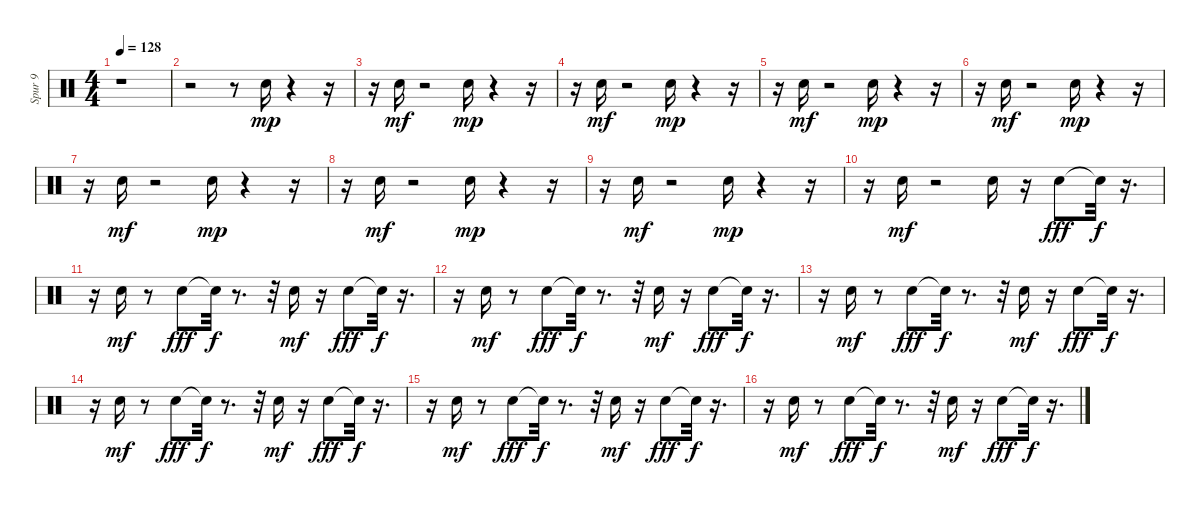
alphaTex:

\track ("Spur 9" "Spur 9") {instrument percussion}
\staff {score}
\articulation defaults
\ts (4 4)
\tempo 128
\clef neutral
\ks c
r.1{dy mp} |
r.2 r.8 "Snare (hit) 2".16 r.4 r.16 |
r.16 "Snare (hit) 2".16{dy mf} r.2 "Snare (hit) 2".16{dy mp} r.4 r.16 |
r.16 "Snare (hit) 2".16{dy mf} r.2 "Snare (hit) 2".16{dy mp} r.4 r.16 |
r.16 "Snare (hit) 2".16{dy mf} r.2 "Snare (hit) 2".16{dy mp} r.4 r.16 |
r.16 "Snare (hit) 2".16{dy mf} r.2 "Snare (hit) 2".16{dy mp} r.4 r.16 |
r.16 "Snare (hit) 2".16{dy mf} r.2 "Snare (hit) 2".16{dy mp} r.4 r.16 |
r.16 "Snare (hit) 2".16{dy mf} r.2 "Snare (hit) 2".16{dy mp} r.4 r.16 |
r.16 "Snare (hit) 2".16{dy mf} r.2 "Snare (hit) 2".16{dy mp} r.4 r.16 |
r.16 "Snare (hit) 2".16{dy mf} r.2 "Snare (hit) 2".16 r.16 "Electric Snare (hit)".8{dy fff} "Snare (hit)"{t}.32{dy f} r.16{d} |
r.16 "Snare (hit) 2".16{dy mf} r.8 "Electric Snare (hit)".8{dy fff} "Snare (hit)"{t}.32{dy f} r.8{d} r.32 "Snare (hit) 2".16{dy mf} r.16 "Electric Snare (hit)".8{dy fff} "Snare (hit)"{t}.32{dy f} r.16{d} |
r.16 "Snare (hit) 2".16{dy mf} r.8 "Electric Snare (hit)".8{dy fff} "Snare (hit)"{t}.32{dy f} r.8{d} r.32 "Snare (hit) 2".16{dy mf} r.16 "Electric Snare (hit)".8{dy fff} "Snare (hit)"{t}.32{dy f} r.16{d} |
r.16 "Snare (hit) 2".16{dy mf} r.8 "Electric Snare (hit)".8{dy fff} "Snare (hit)"{t}.32{dy f} r.8{d} r.32 "Snare (hit) 2".16{dy mf} r.16 "Electric Snare (hit)".8{dy fff} "Snare (hit)"{t}.32{dy f} r.16{d} |
r.16 "Snare (hit) 2".16{dy mf} r.8 "Electric Snare (hit)".8{dy fff} "Snare (hit)"{t}.32{dy f} r.8{d} r.32 "Snare (hit) 2".16{dy mf} r.16 "Electric Snare (hit)".8{dy fff} "Snare (hit)"{t}.32{dy f} r.16{d} |
r.16 "Snare (hit) 2".16{dy mf} r.8 "Electric Snare (hit)".8{dy fff} "Snare (hit)"{t}.32{dy f} r.8{d} r.32 "Snare (hit) 2".16{dy mf} r.16 "Electric Snare (hit)".8{dy fff} "Snare (hit)"{t}.32{dy f} r.16{d} |
r.16 "Snare (hit) 2".16{dy mf} r.8 "Electric Snare (hit)".8{dy fff} "Snare (hit)"{t}.32{dy f} r.8{d} r.32 "Snare (hit) 2".16{dy mf} r.16 "Electric Snare (hit)".8{dy fff} "Snare (hit)"{t}.32{dy f} r.16{d}
